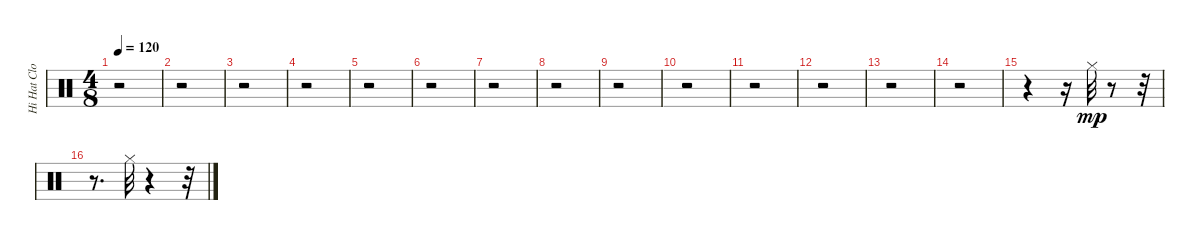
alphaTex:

\track ("Hi Hat Close" "Hi Hat Clo") {instrument percussion}
\staff {score}
\articulation defaults
\ts (4 8)
\tempo 120
\clef neutral
\ks c
r.2{dy mp} |
r.2 |
r.2 |
r.2 |
r.2 |
r.2 |
r.2 |
r.2 |
r.2 |
r.2 |
r.2 |
r.2 |
r.2 |
r.2 |
r.4 r.16 "Hi-Hat (closed)".32 r.8 r.32 |
r.8{d} "Hi-Hat (closed)".32 r.4 r.32
